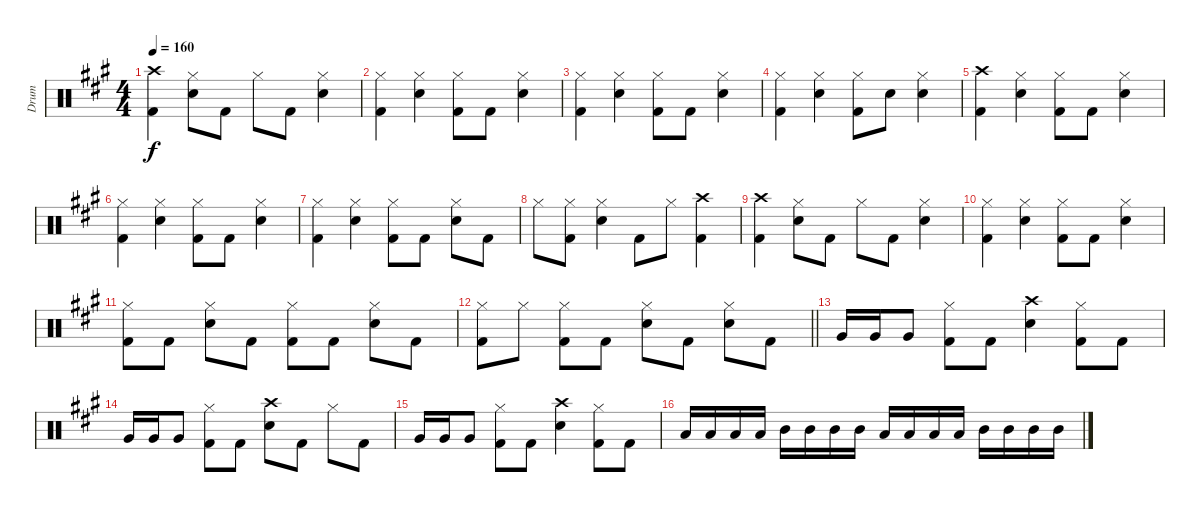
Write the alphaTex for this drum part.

\track ("Drum" "Drum") {instrument percussion}
\staff {score}
\articulation defaults
\ts (4 4)
\tempo 160
\clef neutral
\ks a
("Kick (hit) 2" "Crash high (hit)").4{dy f} ("Hi-Hat (closed)" "Snare (hit) 2").8 "Kick (hit) 2".8 "Hi-Hat (closed)".8 "Kick (hit) 2".8 ("Hi-Hat (closed)" "Snare (hit) 2").4 |
("Hi-Hat (closed)" "Kick (hit) 2").4 ("Hi-Hat (closed)" "Snare (hit) 2").4 ("Hi-Hat (closed)" "Kick (hit) 2").8 "Kick (hit) 2".8 ("Hi-Hat (closed)" "Snare (hit) 2").4 |
("Hi-Hat (closed)" "Kick (hit) 2").4 ("Hi-Hat (closed)" "Snare (hit) 2").4 ("Hi-Hat (closed)" "Kick (hit) 2").8 "Kick (hit) 2".8 ("Hi-Hat (closed)" "Snare (hit) 2").4 |
("Hi-Hat (closed)" "Kick (hit) 2").4 ("Hi-Hat (closed)" "Snare (hit) 2").4 ("Hi-Hat (closed)" "Kick (hit) 2").8 "Snare (hit) 2".8 ("Hi-Hat (closed)" "Snare (hit) 2").4 |
("Kick (hit) 2" "Crash high (hit)").4 ("Hi-Hat (closed)" "Snare (hit) 2").4 ("Hi-Hat (closed)" "Kick (hit) 2").8 "Kick (hit) 2".8 ("Hi-Hat (closed)" "Snare (hit) 2").4 |
("Hi-Hat (closed)" "Kick (hit) 2").4 ("Hi-Hat (closed)" "Snare (hit) 2").4 ("Hi-Hat (closed)" "Kick (hit) 2").8 "Kick (hit) 2".8 ("Hi-Hat (closed)" "Snare (hit) 2").4 |
("Hi-Hat (closed)" "Kick (hit) 2").4 ("Hi-Hat (closed)" "Snare (hit) 2").4 ("Hi-Hat (closed)" "Kick (hit) 2").8 "Kick (hit) 2".8 ("Hi-Hat (closed)" "Snare (hit) 2").8 "Kick (hit) 2".8 |
"Hi-Hat (closed)".8 ("Hi-Hat (closed)" "Kick (hit) 2").8 ("Hi-Hat (closed)" "Snare (hit) 2").4 "Kick (hit) 2".8 "Hi-Hat (closed)".8 ("Kick (hit) 2" "Crash high (hit)").4 |
("Kick (hit) 2" "Crash high (hit)").4 ("Hi-Hat (closed)" "Snare (hit) 2").8 "Kick (hit) 2".8 "Hi-Hat (closed)".8 "Kick (hit) 2".8 ("Hi-Hat (closed)" "Snare (hit) 2").4 |
("Hi-Hat (closed)" "Kick (hit) 2").4 ("Hi-Hat (closed)" "Snare (hit) 2").4 ("Hi-Hat (closed)" "Kick (hit) 2").8 "Kick (hit) 2".8 ("Hi-Hat (closed)" "Snare (hit) 2").4 |
("Hi-Hat (closed)" "Kick (hit) 2").8 "Kick (hit) 2".8 ("Hi-Hat (closed)" "Snare (hit) 2").8 "Kick (hit) 2".8 ("Hi-Hat (closed)" "Kick (hit) 2").8 "Kick (hit) 2".8 ("Hi-Hat (closed)" "Snare (hit) 2").8 "Kick (hit) 2".8 |
\barLineRight lightlight
("Hi-Hat (closed)" "Kick (hit) 2").8 "Hi-Hat (closed)".8 ("Hi-Hat (closed)" "Kick (hit) 2").8 "Kick (hit) 2".8 ("Hi-Hat (closed)" "Snare (hit) 2").8 "Kick (hit) 2".8 ("Hi-Hat (closed)" "Snare (hit) 2").8 "Kick (hit) 2".8 |
"Very Low Tom (hit)".16 "Very Low Tom (hit)".16 "Very Low Tom (hit)".8 ("Hi-Hat (closed)" "Kick (hit) 2").8 "Kick (hit) 2".8 ("Snare (hit) 2" "Crash high (hit)").4 ("Hi-Hat (closed)" "Kick (hit) 2").8 "Kick (hit) 2".8 |
"Very Low Tom (hit)".16 "Very Low Tom (hit)".16 "Very Low Tom (hit)".8 ("Hi-Hat (closed)" "Kick (hit) 2").8 "Kick (hit) 2".8 ("Snare (hit) 2" "Crash high (hit)").8 "Kick (hit) 2".8 "Hi-Hat (closed)".8 "Kick (hit) 2".8 |
"Very Low Tom (hit)".16 "Very Low Tom (hit)".16 "Very Low Tom (hit)".8 ("Hi-Hat (closed)" "Kick (hit) 2").8 "Kick (hit) 2".8 ("Snare (hit) 2" "Crash high (hit)").4 ("Hi-Hat (closed)" "Kick (hit) 2").8 "Kick (hit) 2".8 |
"Low Tom (hit)".16 "Low Tom (hit)".16 "Low Tom (hit)".16 "Low Tom (hit)".16 "Mid Tom (hit)".16 "Mid Tom (hit)".16 "Mid Tom (hit)".16 "Mid Tom (hit)".16 "Low Tom (hit)".16 "Low Tom (hit)".16 "Low Tom (hit)".16 "Low Tom (hit)".16 "Mid Tom (hit)".16 "Mid Tom (hit)".16 "Mid Tom (hit)".16 "Mid Tom (hit)".16
